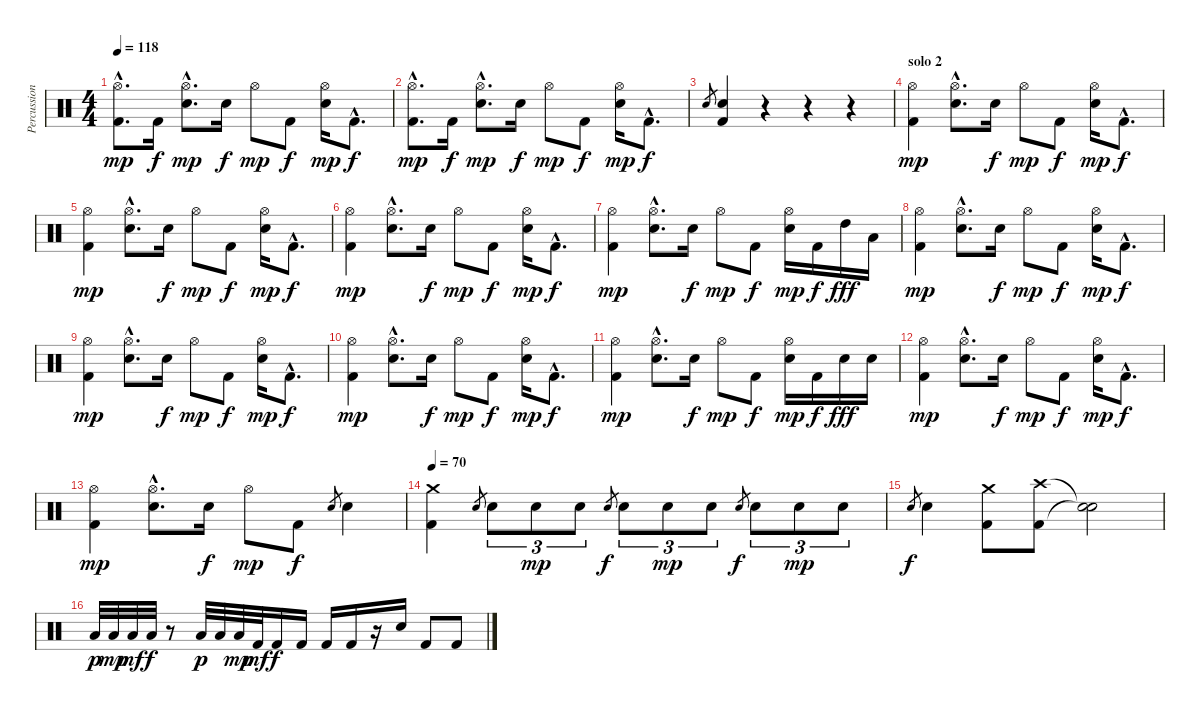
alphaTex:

\track ("Percussions" "Percussion") {instrument percussion}
\staff {score}
\articulation defaults
\ts (4 4)
\tempo 118
\clef neutral
\ks c
("Hi-Hat (open)"{hac} "Kick (hit) 2"{hac}).8{d dy mp} "Kick (hit) 2".16{dy f} ("Hi-Hat (open)"{hac} "Snare (hit) 2"{hac}).8{d dy mp} "Electric Snare (hit)".16{dy f} "Hi-Hat (open)".8{dy mp} "Kick (hit) 2".8{dy f} ("Hi-Hat (open)" "Snare (hit) 2").16{dy mp} "Kick (hit) 2"{hac}.8{d dy f} |
("Hi-Hat (open)"{hac} "Kick (hit) 2"{hac}).8{d dy mp} "Kick (hit) 2".16{dy f} ("Hi-Hat (open)"{hac} "Snare (hit) 2"{hac}).8{d dy mp} "Electric Snare (hit)".16{dy f} "Hi-Hat (open)".8{dy mp} "Kick (hit) 2".8{dy f} ("Hi-Hat (open)" "Snare (hit) 2").16{dy mp} "Kick (hit) 2"{hac}.8{d dy f} |
"Snare (hit) 2".8{gr} ("Snare (hit) 2" "Kick (hit) 2").4 r.4 r.4 r.4 |
\section ("" "solo 2")
("Hi-Hat (open)" "Kick (hit) 2").4{dy mp} ("Hi-Hat (open)"{hac} "Snare (hit) 2"{hac}).8{d} "Snare (hit) 2".16{dy f} "Hi-Hat (open)".8{dy mp} "Kick (hit) 2".8{dy f} ("Hi-Hat (open)" "Snare (hit) 2").16{dy mp} "Kick (hit) 2"{hac}.8{d dy f} |
("Hi-Hat (open)" "Kick (hit) 2").4{dy mp} ("Hi-Hat (open)"{hac} "Snare (hit) 2"{hac}).8{d} "Snare (hit) 2".16{dy f} "Hi-Hat (open)".8{dy mp} "Kick (hit) 2".8{dy f} ("Hi-Hat (open)" "Snare (hit) 2").16{dy mp} "Kick (hit) 2"{hac}.8{d dy f} |
("Hi-Hat (open)" "Kick (hit) 2").4{dy mp} ("Hi-Hat (open)"{hac} "Snare (hit) 2"{hac}).8{d} "Snare (hit) 2".16{dy f} "Hi-Hat (open)".8{dy mp} "Kick (hit) 2".8{dy f} ("Hi-Hat (open)" "Snare (hit) 2").16{dy mp} "Kick (hit) 2"{hac}.8{d dy f} |
("Hi-Hat (open)" "Kick (hit) 2").4{dy mp} ("Hi-Hat (open)"{hac} "Snare (hit) 2"{hac}).8{d} "Snare (hit) 2".16{dy f} "Hi-Hat (open)".8{dy mp} "Kick (hit) 2".8{dy f} ("Hi-Hat (open)" "Snare (hit) 2").16{dy mp} "Kick (hit) 2".16{dy f} "High Tom (hit)".16{dy fff} "Low Tom (hit)".16 |
("Hi-Hat (open)" "Kick (hit) 2").4{dy mp} ("Hi-Hat (open)"{hac} "Snare (hit) 2"{hac}).8{d} "Snare (hit) 2".16{dy f} "Hi-Hat (open)".8{dy mp} "Kick (hit) 2".8{dy f} ("Hi-Hat (open)" "Snare (hit) 2").16{dy mp} "Kick (hit) 2"{hac}.8{d dy f} |
("Hi-Hat (open)" "Kick (hit) 2").4{dy mp} ("Hi-Hat (open)"{hac} "Snare (hit) 2"{hac}).8{d} "Snare (hit) 2".16{dy f} "Hi-Hat (open)".8{dy mp} "Kick (hit) 2".8{dy f} ("Hi-Hat (open)" "Snare (hit) 2").16{dy mp} "Kick (hit) 2"{hac}.8{d dy f} |
("Hi-Hat (open)" "Kick (hit) 2").4{dy mp} ("Hi-Hat (open)"{hac} "Snare (hit) 2"{hac}).8{d} "Snare (hit) 2".16{dy f} "Hi-Hat (open)".8{dy mp} "Kick (hit) 2".8{dy f} ("Hi-Hat (open)" "Snare (hit) 2").16{dy mp} "Kick (hit) 2"{hac}.8{d dy f} |
("Hi-Hat (open)" "Kick (hit) 2").4{dy mp} ("Hi-Hat (open)"{hac} "Snare (hit) 2"{hac}).8{d} "Snare (hit) 2".16{dy f} "Hi-Hat (open)".8{dy mp} "Kick (hit) 2".8{dy f} ("Hi-Hat (open)" "Snare (hit) 2").16{dy mp} "Kick (hit) 2".16{dy f} "Snare (hit) 2".16{dy fff} "Snare (hit) 2".16 |
("Hi-Hat (open)" "Kick (hit) 2").4{dy mp} ("Hi-Hat (open)"{hac} "Snare (hit) 2"{hac}).8{d} "Snare (hit) 2".16{dy f} "Hi-Hat (open)".8{dy mp} "Kick (hit) 2".8{dy f} ("Hi-Hat (open)" "Snare (hit) 2").16{dy mp} "Kick (hit) 2"{hac}.8{d dy f} |
("Hi-Hat (open)" "Kick (hit) 2").4{dy mp} ("Hi-Hat (open)"{hac} "Snare (hit) 2"{hac}).8{d} "Snare (hit) 2".16{dy f} "Hi-Hat (open)".8{dy mp} "Kick (hit) 2".8{dy f} "Snare (hit) 2".8{gr} "Snare (hit) 2".4 |
\tempo 70
("Crash medium (hit)" "Kick (hit) 2").4 "Electric Snare (hit)".8{gr} "Electric Snare (hit)".8{tu (3 2)} "Electric Snare (hit)".8{tu (3 2) dy mp} "Electric Snare (hit)".8{tu (3 2)} "Electric Snare (hit)".8{gr dy f} "Electric Snare (hit)".8{tu (3 2)} "Electric Snare (hit)".8{tu (3 2) dy mp} "Electric Snare (hit)".8{tu (3 2)} "Electric Snare (hit)".8{gr dy f} "Electric Snare (hit)".8{tu (3 2)} "Electric Snare (hit)".8{tu (3 2) dy mp} "Electric Snare (hit)".8{tu (3 2)} |
"Electric Snare (hit)".8{gr dy f} "Electric Snare (hit)".4 ("Crash medium (hit)" "Kick (hit) 2").8 ("Crash high (hit)" "Kick (hit) 2").8 ("Snare (hit)"{t} "Snare (hit)"{t}).2 |
"Low Tom (hit)".32{dy p} "Low Tom (hit)".32{dy mp} "Low Tom (hit)".32{dy mf} "Low Tom (hit)".32{dy f} r.8 "Low Tom (hit)".32{dy p} "Low Tom (hit)".32 "Low Tom (hit)".32{dy mp} "Kick (hit) 2".32{dy mf} "Kick (hit) 2".16{dy f} "Kick (hit) 2".16 "Kick (hit) 2".16 "Kick (hit) 2".16 r.16 "Electric Snare (hit)".16 "Kick (hit) 2".8 "Kick (hit) 2".8
